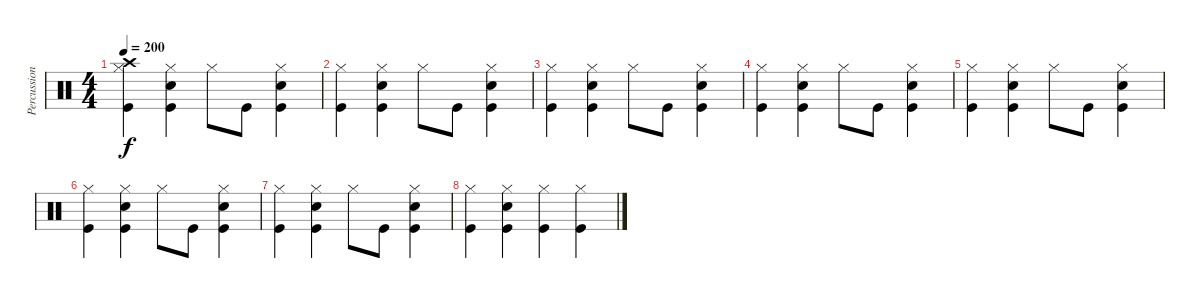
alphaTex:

\track ("Percussion" "Percussion") {instrument percussion}
\staff {score}
\articulation defaults
\ts (4 4)
\tempo 200
\clef neutral
\ks c
("Crash high (hit)" "Hi-Hat (closed)" "Kick (hit)").4{dy f} ("Snare (hit) 2" "Hi-Hat (closed)" "Kick (hit)").4 "Hi-Hat (closed)".8 "Kick (hit)".8 ("Snare (hit) 2" "Hi-Hat (closed)" "Kick (hit)").4 |
("Hi-Hat (closed)" "Kick (hit)").4 ("Snare (hit) 2" "Hi-Hat (closed)" "Kick (hit)").4 "Hi-Hat (closed)".8 "Kick (hit)".8 ("Snare (hit) 2" "Hi-Hat (closed)" "Kick (hit)").4 |
("Hi-Hat (closed)" "Kick (hit)").4 ("Snare (hit) 2" "Hi-Hat (closed)" "Kick (hit)").4 "Hi-Hat (closed)".8 "Kick (hit)".8 ("Snare (hit) 2" "Hi-Hat (closed)" "Kick (hit)").4 |
("Hi-Hat (closed)" "Kick (hit)").4 ("Snare (hit) 2" "Hi-Hat (closed)" "Kick (hit)").4 "Hi-Hat (closed)".8 "Kick (hit)".8 ("Snare (hit) 2" "Hi-Hat (closed)" "Kick (hit)").4 |
("Hi-Hat (closed)" "Kick (hit)").4 ("Snare (hit) 2" "Hi-Hat (closed)" "Kick (hit)").4 "Hi-Hat (closed)".8 "Kick (hit)".8 ("Snare (hit) 2" "Hi-Hat (closed)" "Kick (hit)").4 |
("Hi-Hat (closed)" "Kick (hit)").4 ("Snare (hit) 2" "Hi-Hat (closed)" "Kick (hit)").4 "Hi-Hat (closed)".8 "Kick (hit)".8 ("Snare (hit) 2" "Hi-Hat (closed)" "Kick (hit)").4 |
("Hi-Hat (closed)" "Kick (hit)").4 ("Snare (hit) 2" "Hi-Hat (closed)" "Kick (hit)").4 "Hi-Hat (closed)".8 "Kick (hit)".8 ("Snare (hit) 2" "Hi-Hat (closed)" "Kick (hit)").4 |
("Hi-Hat (closed)" "Kick (hit)").4 ("Snare (hit) 2" "Hi-Hat (closed)" "Kick (hit)").4 ("Hi-Hat (closed)" "Kick (hit)").4 ("Hi-Hat (closed)" "Kick (hit)").4
